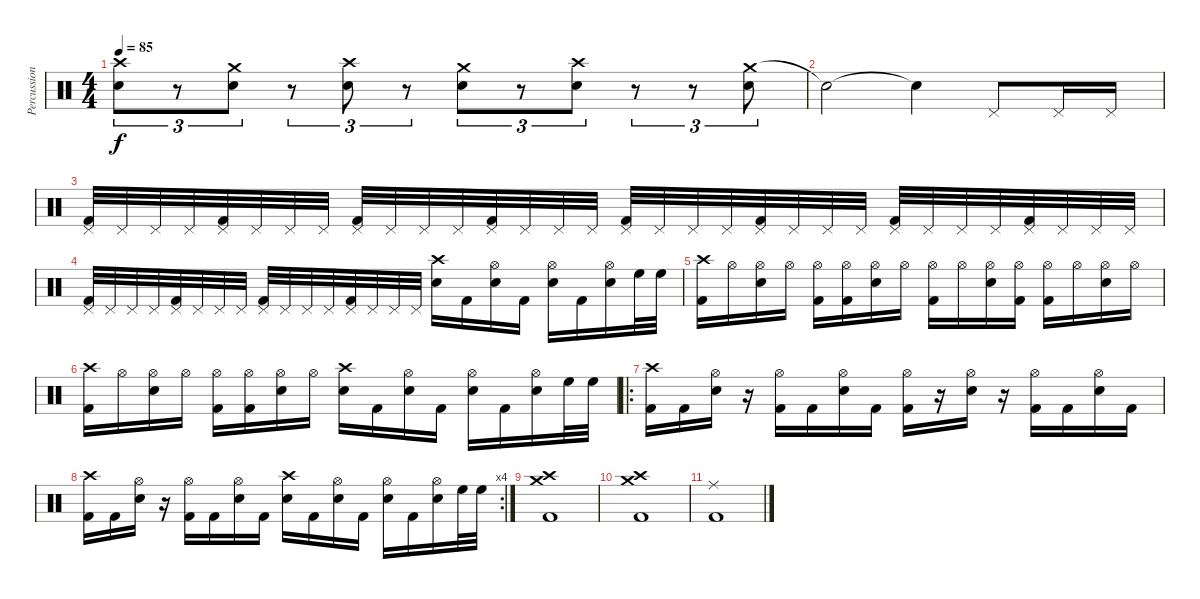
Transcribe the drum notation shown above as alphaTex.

\track ("Percussion" "Percussion") {instrument percussion}
\staff {score}
\articulation defaults
\ts (4 4)
\tempo 85
\clef neutral
\ks c
("Crash high (hit)" "Electric Snare (hit)").8{tu (3 2) dy f} r.8{tu (3 2)} ("Crash medium (hit)" "Electric Snare (hit)").8{tu (3 2)} r.8{tu (3 2)} ("Crash high (hit)" "Electric Snare (hit)").8{tu (3 2)} r.8{tu (3 2)} ("Crash medium (hit)" "Electric Snare (hit)").8{tu (3 2)} r.8{tu (3 2)} ("Crash high (hit)" "Electric Snare (hit)").8{tu (3 2)} r.8{tu (3 2)} r.8{tu (3 2)} ("Crash medium (hit)" "Electric Snare (hit)").8{tu (3 2)} |
"Snare (hit)"{t}.2 "Snare (hit)"{t}.4 "Pedal Hi-Hat (hit)".8 "Pedal Hi-Hat (hit)".16 "Pedal Hi-Hat (hit)".16 |
("Kick (hit) 2" "Pedal Hi-Hat (hit)").32 "Pedal Hi-Hat (hit)".32 "Pedal Hi-Hat (hit)".32 "Pedal Hi-Hat (hit)".32 ("Kick (hit) 2" "Pedal Hi-Hat (hit)").32 "Pedal Hi-Hat (hit)".32 "Pedal Hi-Hat (hit)".32 "Pedal Hi-Hat (hit)".32 ("Kick (hit) 2" "Pedal Hi-Hat (hit)").32 "Pedal Hi-Hat (hit)".32 "Pedal Hi-Hat (hit)".32 "Pedal Hi-Hat (hit)".32 ("Kick (hit) 2" "Pedal Hi-Hat (hit)").32 "Pedal Hi-Hat (hit)".32 "Pedal Hi-Hat (hit)".32 "Pedal Hi-Hat (hit)".32 ("Kick (hit) 2" "Pedal Hi-Hat (hit)").32 "Pedal Hi-Hat (hit)".32 "Pedal Hi-Hat (hit)".32 "Pedal Hi-Hat (hit)".32 ("Kick (hit) 2" "Pedal Hi-Hat (hit)").32 "Pedal Hi-Hat (hit)".32 "Pedal Hi-Hat (hit)".32 "Pedal Hi-Hat (hit)".32 ("Kick (hit) 2" "Pedal Hi-Hat (hit)").32 "Pedal Hi-Hat (hit)".32 "Pedal Hi-Hat (hit)".32 "Pedal Hi-Hat (hit)".32 ("Kick (hit) 2" "Pedal Hi-Hat (hit)").32 "Pedal Hi-Hat (hit)".32 "Pedal Hi-Hat (hit)".32 "Pedal Hi-Hat (hit)".32 |
("Kick (hit) 2" "Pedal Hi-Hat (hit)").32 "Pedal Hi-Hat (hit)".32 "Pedal Hi-Hat (hit)".32 "Pedal Hi-Hat (hit)".32 ("Kick (hit) 2" "Pedal Hi-Hat (hit)").32 "Pedal Hi-Hat (hit)".32 "Pedal Hi-Hat (hit)".32 "Pedal Hi-Hat (hit)".32 ("Kick (hit) 2" "Pedal Hi-Hat (hit)").32 "Pedal Hi-Hat (hit)".32 "Pedal Hi-Hat (hit)".32 "Pedal Hi-Hat (hit)".32 ("Kick (hit) 2" "Pedal Hi-Hat (hit)").32 "Pedal Hi-Hat (hit)".32 "Pedal Hi-Hat (hit)".32 "Pedal Hi-Hat (hit)".32 ("Crash high (hit)" "Electric Snare (hit)").16 "Kick (hit) 2".16 ("Hi-Hat (open)" "Electric Snare (hit)").16 "Kick (hit) 2".16 ("Hi-Hat (open)" "Electric Snare (hit)").16 "Kick (hit) 2".16 ("Hi-Hat (open)" "Electric Snare (hit)").16 "High Floor Tom (hit)".32 "High Floor Tom (hit)".32 |
("Kick (hit) 2" "Crash high (hit)").16 "Hi-Hat (open)".16 ("Electric Snare (hit)" "Hi-Hat (open)").16 "Hi-Hat (open)".16 ("Kick (hit) 2" "Hi-Hat (open)").16 ("Kick (hit) 2" "Hi-Hat (open)").16 ("Electric Snare (hit)" "Hi-Hat (open)").16 "Hi-Hat (open)".16 ("Kick (hit) 2" "Hi-Hat (open)").16 "Hi-Hat (open)".16 ("Electric Snare (hit)" "Hi-Hat (open)").16 ("Kick (hit) 2" "Hi-Hat (open)").16 ("Kick (hit) 2" "Hi-Hat (open)").16 "Hi-Hat (open)".16 ("Electric Snare (hit)" "Hi-Hat (open)").16 "Hi-Hat (open)".16 |
("Kick (hit) 2" "Crash high (hit)").16 "Hi-Hat (open)".16 ("Electric Snare (hit)" "Hi-Hat (open)").16 "Hi-Hat (open)".16 ("Kick (hit) 2" "Hi-Hat (open)").16 ("Kick (hit) 2" "Hi-Hat (open)").16 ("Electric Snare (hit)" "Hi-Hat (open)").16 "Hi-Hat (open)".16 ("Crash high (hit)" "Electric Snare (hit)").16 "Kick (hit) 2".16 ("Hi-Hat (open)" "Electric Snare (hit)").16 "Kick (hit) 2".16 ("Hi-Hat (open)" "Electric Snare (hit)").16 "Kick (hit) 2".16 ("Hi-Hat (open)" "Electric Snare (hit)").16 "High Floor Tom (hit)".32 "High Floor Tom (hit)".32 |
\ro
("Crash high (hit)" "Kick (hit) 2").16 "Kick (hit) 2".16 ("Hi-Hat (open)" "Electric Snare (hit)").16 r.16 ("Hi-Hat (open)" "Kick (hit) 2").16 "Kick (hit) 2".16 ("Hi-Hat (open)" "Electric Snare (hit)").16 "Kick (hit) 2".16 ("Hi-Hat (open)" "Kick (hit) 2").16 r.16 ("Hi-Hat (open)" "Electric Snare (hit)").16 r.16 ("Hi-Hat (open)" "Kick (hit) 2").16 "Kick (hit) 2".16 ("Hi-Hat (open)" "Electric Snare (hit)").16 "Kick (hit) 2".16 |
\rc 4
("Crash high (hit)" "Kick (hit) 2").16 "Kick (hit) 2".16 ("Hi-Hat (open)" "Electric Snare (hit)").16 r.16 ("Hi-Hat (open)" "Kick (hit) 2").16 "Kick (hit) 2".16 ("Hi-Hat (open)" "Electric Snare (hit)").16 "Kick (hit) 2".16 ("Crash high (hit)" "Electric Snare (hit)").16 "Kick (hit) 2".16 ("Hi-Hat (open)" "Electric Snare (hit)").16 "Kick (hit) 2".16 ("Hi-Hat (open)" "Electric Snare (hit)").16 "Kick (hit) 2".16 ("Hi-Hat (open)" "Electric Snare (hit)").16 "High Floor Tom (hit)".32 "High Floor Tom (hit)".32 |
("Crash high (hit)" "Crash medium (hit)" "Kick (hit) 2").1 |
("Crash high (hit)" "Crash medium (hit)" "Kick (hit) 2").1 |
("Ride (middle)" "Kick (hit) 2").1
